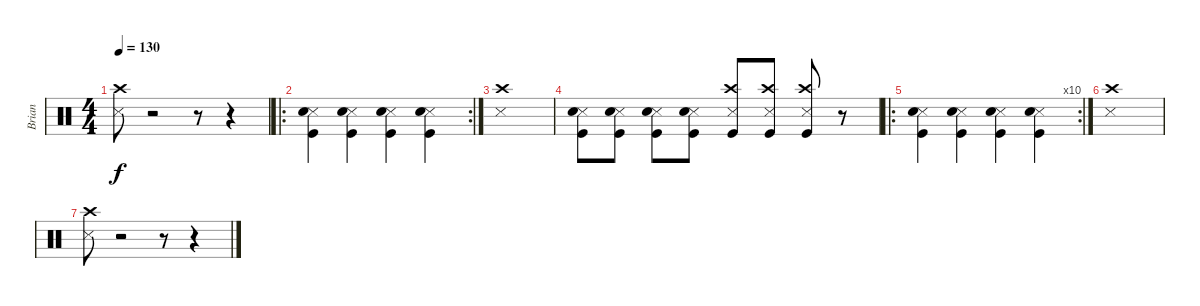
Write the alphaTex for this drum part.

\track ("Brian" "Brian") {instrument percussion}
\staff {score}
\articulation defaults
\ts (4 4)
\tempo 130
\clef neutral
\ks c
("Snare (side stick) 3" "Crash high (hit)").8{dy f} r.2 r.8 r.4 |
\ro
\rc 2
("Kick (hit)" "Snare (side stick) 3" "Electric Snare (hit)").4 ("Kick (hit)" "Snare (side stick) 3" "Electric Snare (hit)").4 ("Kick (hit)" "Snare (side stick) 3" "Electric Snare (hit)").4 ("Kick (hit)" "Snare (side stick) 3" "Electric Snare (hit)").4 |
("Snare (side stick) 3" "Crash high (hit)").1 |
("Kick (hit)" "Snare (side stick) 3" "Electric Snare (hit)").8 ("Kick (hit)" "Snare (side stick) 3" "Electric Snare (hit)").8 ("Kick (hit)" "Snare (side stick) 3" "Electric Snare (hit)").8 ("Kick (hit)" "Snare (side stick) 3" "Electric Snare (hit)").8 ("Kick (hit)" "Snare (side stick) 3" "Crash high (hit)").8 ("Kick (hit)" "Snare (side stick) 3" "Crash high (hit)").8 ("Kick (hit)" "Snare (side stick) 3" "Crash high (hit)").8 r.8 |
\ro
\rc 10
("Kick (hit)" "Snare (side stick) 3" "Electric Snare (hit)").4 ("Kick (hit)" "Snare (side stick) 3" "Electric Snare (hit)").4 ("Kick (hit)" "Snare (side stick) 3" "Electric Snare (hit)").4 ("Kick (hit)" "Snare (side stick) 3" "Electric Snare (hit)").4 |
("Snare (side stick) 3" "Crash high (hit)").1 |
("Snare (side stick) 3" "Crash high (hit)").8 r.2 r.8 r.4
